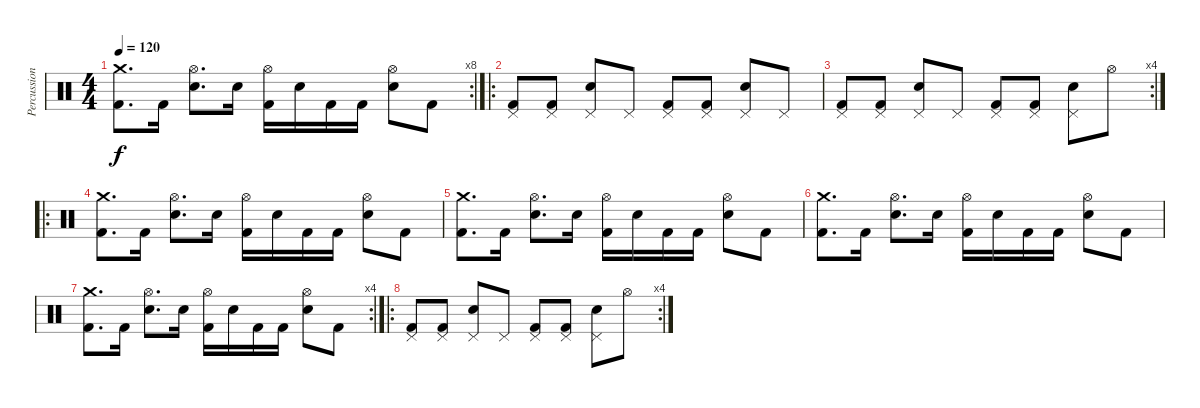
\track ("Percussion" "Percussion") {instrument percussion}
\staff {score}
\articulation defaults
\rc 8
\ts (4 4)
\tempo 120
\clef neutral
\ks c
("Crash medium (hit)" "Kick (hit) 2").8{d dy f} "Kick (hit) 2".16 ("Hi-Hat (open)" "Electric Snare (hit)").8{d} "Electric Snare (hit)".16 ("Hi-Hat (open)" "Kick (hit) 2").16 "Electric Snare (hit)".16 "Kick (hit) 2".16 "Kick (hit) 2".16 ("Hi-Hat (open)" "Electric Snare (hit)").8 "Kick (hit) 2".8 |
\ro
("Pedal Hi-Hat (hit)" "Kick (hit) 2").8 ("Pedal Hi-Hat (hit)" "Kick (hit) 2").8 ("Pedal Hi-Hat (hit)" "Electric Snare (hit)").8 "Pedal Hi-Hat (hit)".8 ("Pedal Hi-Hat (hit)" "Kick (hit) 2").8 ("Pedal Hi-Hat (hit)" "Kick (hit) 2").8 ("Pedal Hi-Hat (hit)" "Electric Snare (hit)").8 "Pedal Hi-Hat (hit)".8 |
\rc 4
("Pedal Hi-Hat (hit)" "Kick (hit) 2").8 ("Pedal Hi-Hat (hit)" "Kick (hit) 2").8 ("Pedal Hi-Hat (hit)" "Electric Snare (hit)").8 "Pedal Hi-Hat (hit)".8 ("Pedal Hi-Hat (hit)" "Kick (hit) 2").8 ("Pedal Hi-Hat (hit)" "Kick (hit) 2").8 ("Pedal Hi-Hat (hit)" "Electric Snare (hit)").8 "Hi-Hat (open)".8 |
\ro
("Crash medium (hit)" "Kick (hit) 2").8{d} "Kick (hit) 2".16 ("Hi-Hat (open)" "Electric Snare (hit)").8{d} "Electric Snare (hit)".16 ("Hi-Hat (open)" "Kick (hit) 2").16 "Electric Snare (hit)".16 "Kick (hit) 2".16 "Kick (hit) 2".16 ("Hi-Hat (open)" "Electric Snare (hit)").8 "Kick (hit) 2".8 |
("Crash medium (hit)" "Kick (hit) 2").8{d} "Kick (hit) 2".16 ("Hi-Hat (open)" "Electric Snare (hit)").8{d} "Electric Snare (hit)".16 ("Hi-Hat (open)" "Kick (hit) 2").16 "Electric Snare (hit)".16 "Kick (hit) 2".16 "Kick (hit) 2".16 ("Hi-Hat (open)" "Electric Snare (hit)").8 "Kick (hit) 2".8 |
("Crash medium (hit)" "Kick (hit) 2").8{d} "Kick (hit) 2".16 ("Hi-Hat (open)" "Electric Snare (hit)").8{d} "Electric Snare (hit)".16 ("Hi-Hat (open)" "Kick (hit) 2").16 "Electric Snare (hit)".16 "Kick (hit) 2".16 "Kick (hit) 2".16 ("Hi-Hat (open)" "Electric Snare (hit)").8 "Kick (hit) 2".8 |
\rc 4
("Crash medium (hit)" "Kick (hit) 2").8{d} "Kick (hit) 2".16 ("Hi-Hat (open)" "Electric Snare (hit)").8{d} "Electric Snare (hit)".16 ("Hi-Hat (open)" "Kick (hit) 2").16 "Electric Snare (hit)".16 "Kick (hit) 2".16 "Kick (hit) 2".16 ("Hi-Hat (open)" "Electric Snare (hit)").8 "Kick (hit) 2".8 |
\ro
\rc 4
("Pedal Hi-Hat (hit)" "Kick (hit) 2").8 ("Pedal Hi-Hat (hit)" "Kick (hit) 2").8 ("Pedal Hi-Hat (hit)" "Electric Snare (hit)").8 "Pedal Hi-Hat (hit)".8 ("Pedal Hi-Hat (hit)" "Kick (hit) 2").8 ("Pedal Hi-Hat (hit)" "Kick (hit) 2").8 ("Pedal Hi-Hat (hit)" "Electric Snare (hit)").8 "Hi-Hat (open)".8
